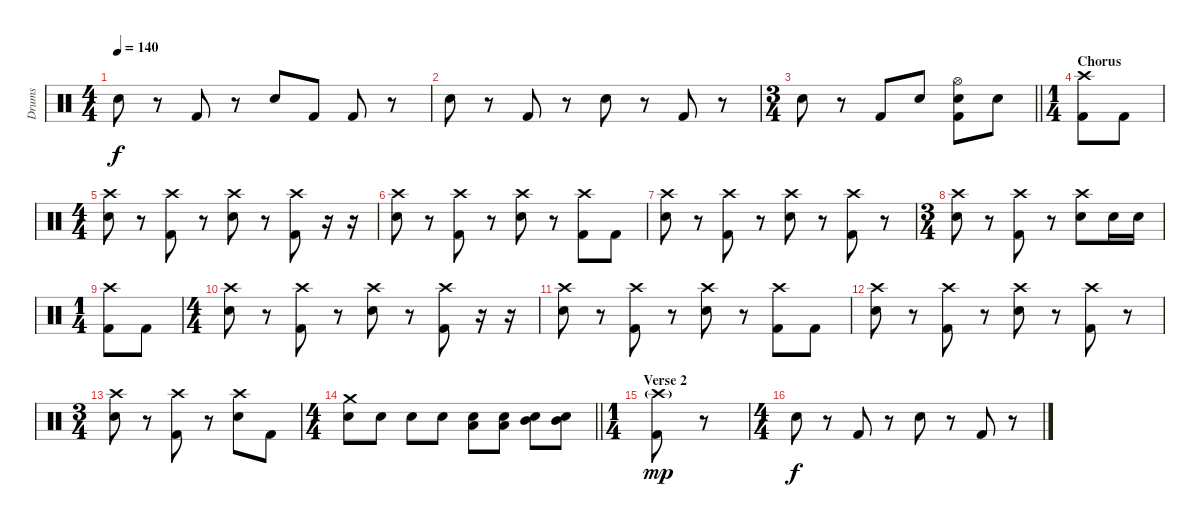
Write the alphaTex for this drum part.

\track ("Drums" "Drums") {instrument percussion}
\staff {score}
\articulation defaults
\ts (4 4)
\tempo 140
\clef neutral
\ks c "Electric Snare (hit)".8{dy f}
r.8 "Kick (hit) 2".8 r.8 "Electric Snare (hit)".8 "Kick (hit) 2".8 "Kick (hit) 2".8 r.8 |
"Electric Snare (hit)".8 r.8 "Kick (hit) 2".8 r.8 "Electric Snare (hit)".8 r.8 "Kick (hit) 2".8 r.8 |
\ts (3 4)
\barLineRight lightlight "Electric Snare (hit)".8
r.8 "Kick (hit) 2".8 "Electric Snare (hit)".8 ("Hi-Hat (open)" "Electric Snare (hit)" "Kick (hit) 2").8 "Electric Snare (hit)".8 |
\ts (1 4)
\section ("" "Chorus")
("Crash high (hit)" "Kick (hit) 2").8 "Kick (hit) 2".8 |
\ts (4 4)
("Crash high (hit)" "Electric Snare (hit)").8 r.8 ("Crash high (hit)" "Kick (hit) 2").8 r.8 ("Crash high (hit)" "Electric Snare (hit)").8 r.8 ("Crash high (hit)" "Kick (hit) 2").8 r.16 r.16 |
("Crash high (hit)" "Electric Snare (hit)").8 r.8 ("Crash high (hit)" "Kick (hit) 2").8 r.8 ("Crash high (hit)" "Electric Snare (hit)").8 r.8 ("Crash high (hit)" "Kick (hit) 2").8 "Kick (hit) 2".8 |
("Crash high (hit)" "Electric Snare (hit)").8 r.8 ("Crash high (hit)" "Kick (hit) 2").8 r.8 ("Crash high (hit)" "Electric Snare (hit)").8 r.8 ("Crash high (hit)" "Kick (hit) 2").8 r.8 |
\ts (3 4)
("Crash high (hit)" "Electric Snare (hit)").8 r.8 ("Crash high (hit)" "Kick (hit) 2").8 r.8 ("Crash high (hit)" "Electric Snare (hit)").8 "Electric Snare (hit)".16 "Electric Snare (hit)".16 |
\ts (1 4)
("Crash high (hit)" "Kick (hit) 2").8 "Kick (hit) 2".8 |
\ts (4 4)
("Crash high (hit)" "Electric Snare (hit)").8 r.8 ("Crash high (hit)" "Kick (hit) 2").8 r.8 ("Crash high (hit)" "Electric Snare (hit)").8 r.8 ("Crash high (hit)" "Kick (hit) 2").8 r.16 r.16 |
("Crash high (hit)" "Electric Snare (hit)").8 r.8 ("Crash high (hit)" "Kick (hit) 2").8 r.8 ("Crash high (hit)" "Electric Snare (hit)").8 r.8 ("Crash high (hit)" "Kick (hit) 2").8 "Kick (hit) 2".8 |
("Crash high (hit)" "Electric Snare (hit)").8 r.8 ("Crash high (hit)" "Kick (hit) 2").8 r.8 ("Crash high (hit)" "Electric Snare (hit)").8 r.8 ("Crash high (hit)" "Kick (hit) 2").8 r.8 |
\ts (3 4)
("Crash high (hit)" "Electric Snare (hit)").8 r.8 ("Crash high (hit)" "Kick (hit) 2").8 r.8 ("Crash high (hit)" "Electric Snare (hit)").8 "Kick (hit) 2".8 |
\ts (4 4)
\barLineRight lightlight
("Crash medium (hit)" "Electric Snare (hit)").8 "Electric Snare (hit)".8 "Electric Snare (hit)".8 "Electric Snare (hit)".8 ("Low Tom (hit)" "Electric Snare (hit)").8 ("Low Tom (hit)" "Electric Snare (hit)").8 ("Mid Tom (hit)" "Electric Snare (hit)").8 ("Mid Tom (hit)" "Electric Snare (hit)").8 |
\ts (1 4)
\section ("" "Verse 2")
("Crash high (hit)"{g} "Kick (hit) 2").8{dy mp} r.8 |
\ts (4 4)
"Electric Snare (hit)".8{dy f} r.8 "Kick (hit) 2".8 r.8 "Electric Snare (hit)".8 r.8 "Kick (hit) 2".8 r.8
